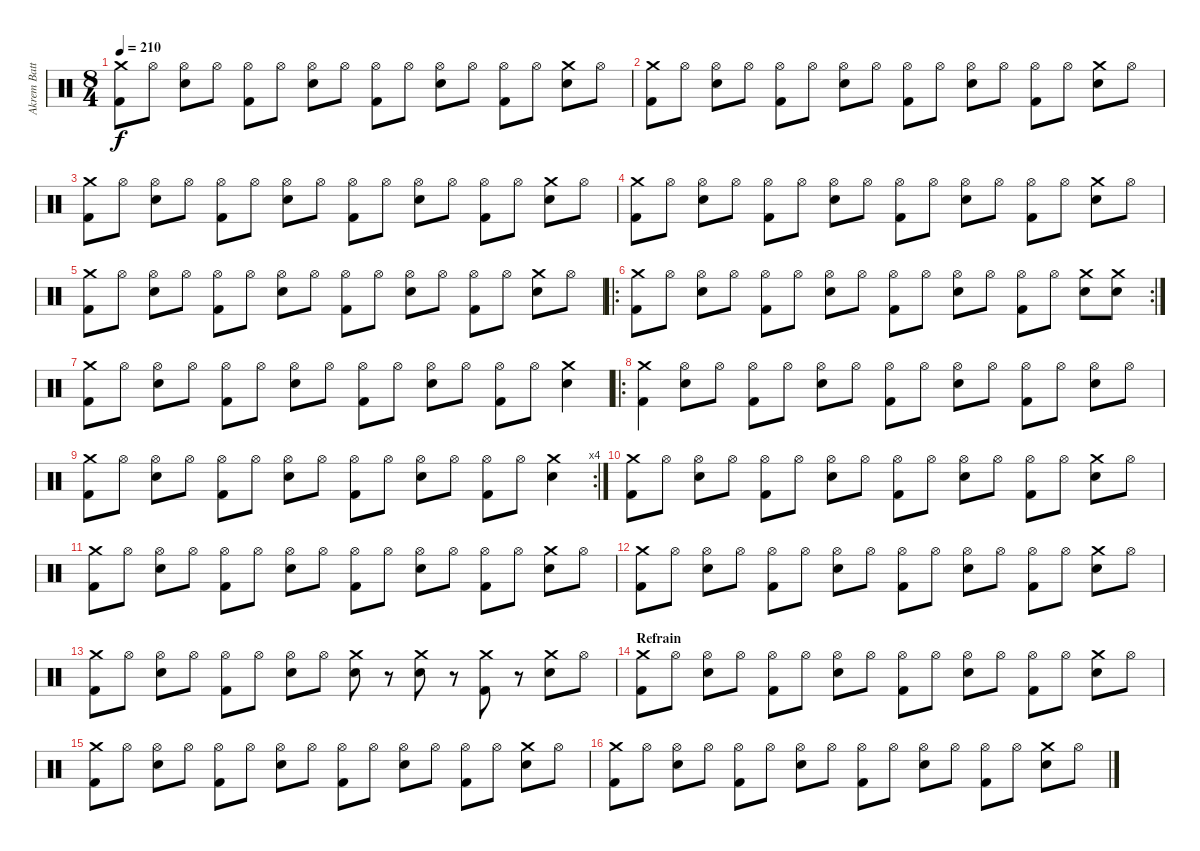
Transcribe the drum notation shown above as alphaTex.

\track ("Akrem Batterie" "Akrem Batt") {instrument percussion}
\staff {score}
\articulation defaults
\ts (8 4)
\tempo 210
\clef neutral
\ks c
("Crash medium (hit)" "Kick (hit) 2").8{dy f} "Hi-Hat (open)".8 ("Hi-Hat (open)" "Electric Snare (hit)").8 "Hi-Hat (open)".8 ("Hi-Hat (open)" "Kick (hit) 2").8 "Hi-Hat (open)".8 ("Hi-Hat (open)" "Electric Snare (hit)").8 "Hi-Hat (open)".8 ("Hi-Hat (open)" "Kick (hit) 2").8 "Hi-Hat (open)".8 ("Hi-Hat (open)" "Electric Snare (hit)").8 "Hi-Hat (open)".8 ("Hi-Hat (open)" "Kick (hit) 2").8 "Hi-Hat (open)".8 ("Crash medium (hit)" "Electric Snare (hit)").8 "Hi-Hat (open)".8 |
("Crash medium (hit)" "Kick (hit) 2").8 "Hi-Hat (open)".8 ("Hi-Hat (open)" "Electric Snare (hit)").8 "Hi-Hat (open)".8 ("Hi-Hat (open)" "Kick (hit) 2").8 "Hi-Hat (open)".8 ("Hi-Hat (open)" "Electric Snare (hit)").8 "Hi-Hat (open)".8 ("Hi-Hat (open)" "Kick (hit) 2").8 "Hi-Hat (open)".8 ("Hi-Hat (open)" "Electric Snare (hit)").8 "Hi-Hat (open)".8 ("Hi-Hat (open)" "Kick (hit) 2").8 "Hi-Hat (open)".8 ("Crash medium (hit)" "Electric Snare (hit)").8 "Hi-Hat (open)".8 |
("Crash medium (hit)" "Kick (hit) 2").8 "Hi-Hat (open)".8 ("Hi-Hat (open)" "Electric Snare (hit)").8 "Hi-Hat (open)".8 ("Hi-Hat (open)" "Kick (hit) 2").8 "Hi-Hat (open)".8 ("Hi-Hat (open)" "Electric Snare (hit)").8 "Hi-Hat (open)".8 ("Hi-Hat (open)" "Kick (hit) 2").8 "Hi-Hat (open)".8 ("Hi-Hat (open)" "Electric Snare (hit)").8 "Hi-Hat (open)".8 ("Hi-Hat (open)" "Kick (hit) 2").8 "Hi-Hat (open)".8 ("Crash medium (hit)" "Electric Snare (hit)").8 "Hi-Hat (open)".8 |
("Crash medium (hit)" "Kick (hit) 2").8 "Hi-Hat (open)".8 ("Hi-Hat (open)" "Electric Snare (hit)").8 "Hi-Hat (open)".8 ("Hi-Hat (open)" "Kick (hit) 2").8 "Hi-Hat (open)".8 ("Hi-Hat (open)" "Electric Snare (hit)").8 "Hi-Hat (open)".8 ("Hi-Hat (open)" "Kick (hit) 2").8 "Hi-Hat (open)".8 ("Hi-Hat (open)" "Electric Snare (hit)").8 "Hi-Hat (open)".8 ("Hi-Hat (open)" "Kick (hit) 2").8 "Hi-Hat (open)".8 ("Crash medium (hit)" "Electric Snare (hit)").8 "Hi-Hat (open)".8 |
("Crash medium (hit)" "Kick (hit) 2").8 "Hi-Hat (open)".8 ("Hi-Hat (open)" "Electric Snare (hit)").8 "Hi-Hat (open)".8 ("Hi-Hat (open)" "Kick (hit) 2").8 "Hi-Hat (open)".8 ("Hi-Hat (open)" "Electric Snare (hit)").8 "Hi-Hat (open)".8 ("Hi-Hat (open)" "Kick (hit) 2").8 "Hi-Hat (open)".8 ("Hi-Hat (open)" "Electric Snare (hit)").8 "Hi-Hat (open)".8 ("Hi-Hat (open)" "Kick (hit) 2").8 "Hi-Hat (open)".8 ("Crash medium (hit)" "Electric Snare (hit)").8 "Hi-Hat (open)".8 |
\ro
\rc 2
("Crash medium (hit)" "Kick (hit) 2").8 "Hi-Hat (open)".8 ("Hi-Hat (open)" "Electric Snare (hit)").8 "Hi-Hat (open)".8 ("Hi-Hat (open)" "Kick (hit) 2").8 "Hi-Hat (open)".8 ("Hi-Hat (open)" "Electric Snare (hit)").8 "Hi-Hat (open)".8 ("Hi-Hat (open)" "Kick (hit) 2").8 "Hi-Hat (open)".8 ("Hi-Hat (open)" "Electric Snare (hit)").8 "Hi-Hat (open)".8 ("Hi-Hat (open)" "Kick (hit) 2").8 "Hi-Hat (open)".8 ("Crash medium (hit)" "Electric Snare (hit)").8 ("Crash medium (hit)" "Electric Snare (hit)").8 |
("Crash medium (hit)" "Kick (hit) 2").8 "Hi-Hat (open)".8 ("Hi-Hat (open)" "Electric Snare (hit)").8 "Hi-Hat (open)".8 ("Hi-Hat (open)" "Kick (hit) 2").8 "Hi-Hat (open)".8 ("Hi-Hat (open)" "Electric Snare (hit)").8 "Hi-Hat (open)".8 ("Hi-Hat (open)" "Kick (hit) 2").8 "Hi-Hat (open)".8 ("Hi-Hat (open)" "Electric Snare (hit)").8 "Hi-Hat (open)".8 ("Hi-Hat (open)" "Kick (hit) 2").8 "Hi-Hat (open)".8 ("Crash medium (hit)" "Electric Snare (hit)").4 |
\ro
("Crash medium (hit)" "Kick (hit) 2").4 ("Hi-Hat (open)" "Electric Snare (hit)").8 "Hi-Hat (open)".8 ("Hi-Hat (open)" "Kick (hit) 2").8 "Hi-Hat (open)".8 ("Hi-Hat (open)" "Electric Snare (hit)").8 "Hi-Hat (open)".8 ("Hi-Hat (open)" "Kick (hit) 2").8 "Hi-Hat (open)".8 ("Hi-Hat (open)" "Electric Snare (hit)").8 "Hi-Hat (open)".8 ("Hi-Hat (open)" "Kick (hit) 2").8 "Hi-Hat (open)".8 ("Hi-Hat (open)" "Electric Snare (hit)").8 "Hi-Hat (open)".8 |
\rc 4
("Crash medium (hit)" "Kick (hit) 2").8 "Hi-Hat (open)".8 ("Hi-Hat (open)" "Electric Snare (hit)").8 "Hi-Hat (open)".8 ("Hi-Hat (open)" "Kick (hit) 2").8 "Hi-Hat (open)".8 ("Hi-Hat (open)" "Electric Snare (hit)").8 "Hi-Hat (open)".8 ("Hi-Hat (open)" "Kick (hit) 2").8 "Hi-Hat (open)".8 ("Hi-Hat (open)" "Electric Snare (hit)").8 "Hi-Hat (open)".8 ("Hi-Hat (open)" "Kick (hit) 2").8 "Hi-Hat (open)".8 ("Crash medium (hit)" "Electric Snare (hit)").4 |
("Crash medium (hit)" "Kick (hit) 2").8 "Hi-Hat (open)".8 ("Hi-Hat (open)" "Electric Snare (hit)").8 "Hi-Hat (open)".8 ("Hi-Hat (open)" "Kick (hit) 2").8 "Hi-Hat (open)".8 ("Hi-Hat (open)" "Electric Snare (hit)").8 "Hi-Hat (open)".8 ("Hi-Hat (open)" "Kick (hit) 2").8 "Hi-Hat (open)".8 ("Hi-Hat (open)" "Electric Snare (hit)").8 "Hi-Hat (open)".8 ("Hi-Hat (open)" "Kick (hit) 2").8 "Hi-Hat (open)".8 ("Crash medium (hit)" "Electric Snare (hit)").8 "Hi-Hat (open)".8 |
("Crash medium (hit)" "Kick (hit) 2").8 "Hi-Hat (open)".8 ("Hi-Hat (open)" "Electric Snare (hit)").8 "Hi-Hat (open)".8 ("Hi-Hat (open)" "Kick (hit) 2").8 "Hi-Hat (open)".8 ("Hi-Hat (open)" "Electric Snare (hit)").8 "Hi-Hat (open)".8 ("Hi-Hat (open)" "Kick (hit) 2").8 "Hi-Hat (open)".8 ("Hi-Hat (open)" "Electric Snare (hit)").8 "Hi-Hat (open)".8 ("Hi-Hat (open)" "Kick (hit) 2").8 "Hi-Hat (open)".8 ("Crash medium (hit)" "Electric Snare (hit)").8 "Hi-Hat (open)".8 |
("Crash medium (hit)" "Kick (hit) 2").8 "Hi-Hat (open)".8 ("Hi-Hat (open)" "Electric Snare (hit)").8 "Hi-Hat (open)".8 ("Hi-Hat (open)" "Kick (hit) 2").8 "Hi-Hat (open)".8 ("Hi-Hat (open)" "Electric Snare (hit)").8 "Hi-Hat (open)".8 ("Hi-Hat (open)" "Kick (hit) 2").8 "Hi-Hat (open)".8 ("Hi-Hat (open)" "Electric Snare (hit)").8 "Hi-Hat (open)".8 ("Hi-Hat (open)" "Kick (hit) 2").8 "Hi-Hat (open)".8 ("Crash medium (hit)" "Electric Snare (hit)").8 "Hi-Hat (open)".8 |
("Crash medium (hit)" "Kick (hit) 2").8 "Hi-Hat (open)".8 ("Hi-Hat (open)" "Electric Snare (hit)").8 "Hi-Hat (open)".8 ("Hi-Hat (open)" "Kick (hit) 2").8 "Hi-Hat (open)".8 ("Hi-Hat (open)" "Electric Snare (hit)").8 "Hi-Hat (open)".8 ("Crash medium (hit)" "Electric Snare (hit)").8 r.8 ("Crash medium (hit)" "Electric Snare (hit)").8 r.8 ("Crash medium (hit)" "Kick (hit) 2").8 r.8 ("Crash medium (hit)" "Electric Snare (hit)").8 "Hi-Hat (open)".8 |
\section ("" "Refrain")
("Crash medium (hit)" "Kick (hit) 2").8 "Hi-Hat (open)".8 ("Hi-Hat (open)" "Electric Snare (hit)").8 "Hi-Hat (open)".8 ("Hi-Hat (open)" "Kick (hit) 2").8 "Hi-Hat (open)".8 ("Hi-Hat (open)" "Electric Snare (hit)").8 "Hi-Hat (open)".8 ("Hi-Hat (open)" "Kick (hit) 2").8 "Hi-Hat (open)".8 ("Hi-Hat (open)" "Electric Snare (hit)").8 "Hi-Hat (open)".8 ("Hi-Hat (open)" "Kick (hit) 2").8 "Hi-Hat (open)".8 ("Crash medium (hit)" "Electric Snare (hit)").8 "Hi-Hat (open)".8 |
("Crash medium (hit)" "Kick (hit) 2").8 "Hi-Hat (open)".8 ("Hi-Hat (open)" "Electric Snare (hit)").8 "Hi-Hat (open)".8 ("Hi-Hat (open)" "Kick (hit) 2").8 "Hi-Hat (open)".8 ("Hi-Hat (open)" "Electric Snare (hit)").8 "Hi-Hat (open)".8 ("Hi-Hat (open)" "Kick (hit) 2").8 "Hi-Hat (open)".8 ("Hi-Hat (open)" "Electric Snare (hit)").8 "Hi-Hat (open)".8 ("Hi-Hat (open)" "Kick (hit) 2").8 "Hi-Hat (open)".8 ("Crash medium (hit)" "Electric Snare (hit)").8 "Hi-Hat (open)".8 |
("Crash medium (hit)" "Kick (hit) 2").8 "Hi-Hat (open)".8 ("Hi-Hat (open)" "Electric Snare (hit)").8 "Hi-Hat (open)".8 ("Hi-Hat (open)" "Kick (hit) 2").8 "Hi-Hat (open)".8 ("Hi-Hat (open)" "Electric Snare (hit)").8 "Hi-Hat (open)".8 ("Hi-Hat (open)" "Kick (hit) 2").8 "Hi-Hat (open)".8 ("Hi-Hat (open)" "Electric Snare (hit)").8 "Hi-Hat (open)".8 ("Hi-Hat (open)" "Kick (hit) 2").8 "Hi-Hat (open)".8 ("Crash medium (hit)" "Electric Snare (hit)").8 "Hi-Hat (open)".8
